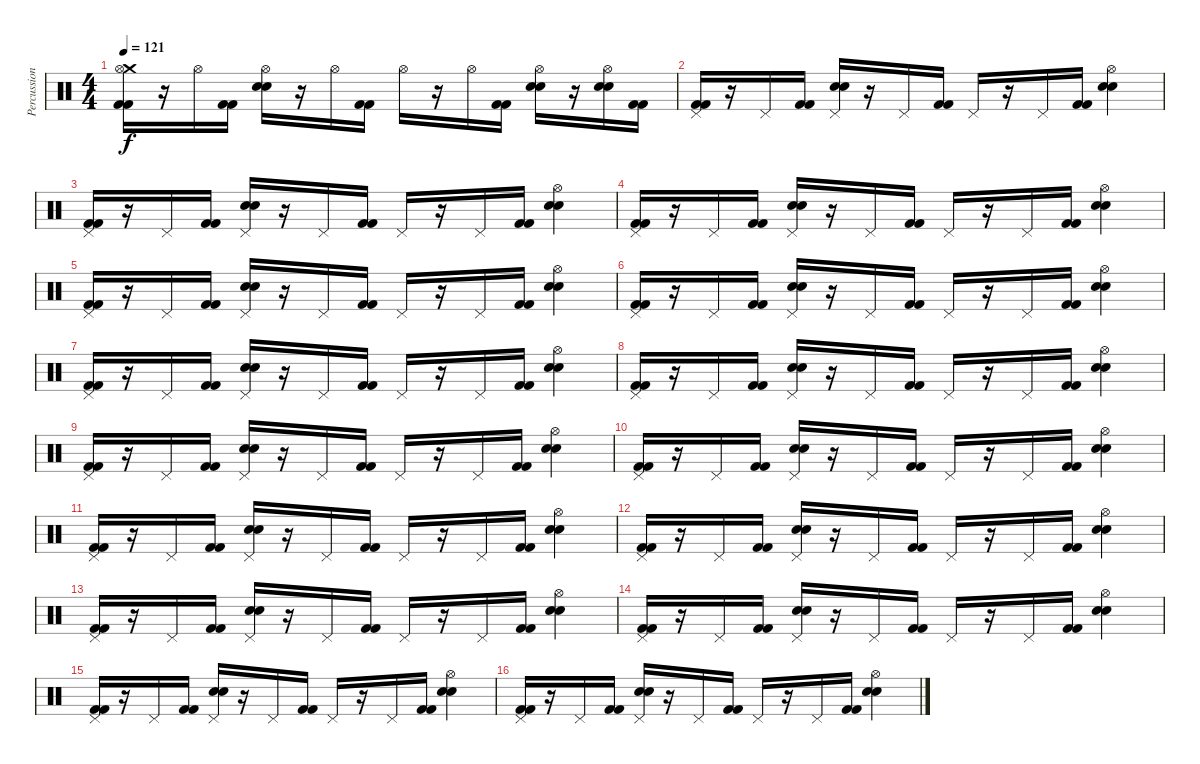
\track ("Percussion- Mike" "Percussion") {instrument percussion}
\staff {score}
\articulation defaults
\ts (4 4)
\tempo 121
\clef neutral
\ks c
("Crash medium (hit)" "Kick (hit) 2" "Kick (hit) 2" "Hi-Hat (open)").16{dy f} r.16 "Hi-Hat (open)".16 ("Kick (hit) 2" "Kick (hit) 2").16 ("Snare (hit) 2" "Snare (hit) 2" "Hi-Hat (open)").16 r.16 "Hi-Hat (open)".16 ("Kick (hit) 2" "Kick (hit) 2").16 "Hi-Hat (open)".16 r.16 "Hi-Hat (open)".16 ("Kick (hit) 2" "Kick (hit) 2").16 ("Snare (hit) 2" "Snare (hit) 2" "Hi-Hat (open)").16 r.16 ("Electric Snare (hit)" "Electric Snare (hit)" "Hi-Hat (open)").16 ("Kick (hit) 2" "Kick (hit) 2").16 |
("Kick (hit) 2" "Kick (hit) 2" "Pedal Hi-Hat (hit)").16 r.16 "Pedal Hi-Hat (hit)".16 ("Kick (hit) 2" "Kick (hit) 2").16 ("Snare (hit) 2" "Snare (hit) 2" "Pedal Hi-Hat (hit)").16 r.16 "Pedal Hi-Hat (hit)".16 ("Kick (hit) 2" "Kick (hit) 2").16 "Pedal Hi-Hat (hit)".16 r.16 "Pedal Hi-Hat (hit)".16 ("Kick (hit) 2" "Kick (hit) 2").16 ("Hi-Hat (open)" "Snare (hit) 2" "Snare (hit) 2").4 |
("Kick (hit) 2" "Kick (hit) 2" "Pedal Hi-Hat (hit)").16 r.16 "Pedal Hi-Hat (hit)".16 ("Kick (hit) 2" "Kick (hit) 2").16 ("Snare (hit) 2" "Snare (hit) 2" "Pedal Hi-Hat (hit)").16 r.16 "Pedal Hi-Hat (hit)".16 ("Kick (hit) 2" "Kick (hit) 2").16 "Pedal Hi-Hat (hit)".16 r.16 "Pedal Hi-Hat (hit)".16 ("Kick (hit) 2" "Kick (hit) 2").16 ("Hi-Hat (open)" "Snare (hit) 2" "Snare (hit) 2").4 |
("Kick (hit) 2" "Kick (hit) 2" "Pedal Hi-Hat (hit)").16 r.16 "Pedal Hi-Hat (hit)".16 ("Kick (hit) 2" "Kick (hit) 2").16 ("Snare (hit) 2" "Snare (hit) 2" "Pedal Hi-Hat (hit)").16 r.16 "Pedal Hi-Hat (hit)".16 ("Kick (hit) 2" "Kick (hit) 2").16 "Pedal Hi-Hat (hit)".16 r.16 "Pedal Hi-Hat (hit)".16 ("Kick (hit) 2" "Kick (hit) 2").16 ("Hi-Hat (open)" "Snare (hit) 2" "Snare (hit) 2").4 |
("Kick (hit) 2" "Kick (hit) 2" "Pedal Hi-Hat (hit)").16 r.16 "Pedal Hi-Hat (hit)".16 ("Kick (hit) 2" "Kick (hit) 2").16 ("Snare (hit) 2" "Snare (hit) 2" "Pedal Hi-Hat (hit)").16 r.16 "Pedal Hi-Hat (hit)".16 ("Kick (hit) 2" "Kick (hit) 2").16 "Pedal Hi-Hat (hit)".16 r.16 "Pedal Hi-Hat (hit)".16 ("Kick (hit) 2" "Kick (hit) 2").16 ("Hi-Hat (open)" "Snare (hit) 2" "Snare (hit) 2").4 |
("Kick (hit) 2" "Kick (hit) 2" "Pedal Hi-Hat (hit)").16 r.16 "Pedal Hi-Hat (hit)".16 ("Kick (hit) 2" "Kick (hit) 2").16 ("Snare (hit) 2" "Snare (hit) 2" "Pedal Hi-Hat (hit)").16 r.16 "Pedal Hi-Hat (hit)".16 ("Kick (hit) 2" "Kick (hit) 2").16 "Pedal Hi-Hat (hit)".16 r.16 "Pedal Hi-Hat (hit)".16 ("Kick (hit) 2" "Kick (hit) 2").16 ("Hi-Hat (open)" "Snare (hit) 2" "Snare (hit) 2").4 |
("Kick (hit) 2" "Kick (hit) 2" "Pedal Hi-Hat (hit)").16 r.16 "Pedal Hi-Hat (hit)".16 ("Kick (hit) 2" "Kick (hit) 2").16 ("Snare (hit) 2" "Snare (hit) 2" "Pedal Hi-Hat (hit)").16 r.16 "Pedal Hi-Hat (hit)".16 ("Kick (hit) 2" "Kick (hit) 2").16 "Pedal Hi-Hat (hit)".16 r.16 "Pedal Hi-Hat (hit)".16 ("Kick (hit) 2" "Kick (hit) 2").16 ("Hi-Hat (open)" "Snare (hit) 2" "Snare (hit) 2").4 |
("Kick (hit) 2" "Kick (hit) 2" "Pedal Hi-Hat (hit)").16 r.16 "Pedal Hi-Hat (hit)".16 ("Kick (hit) 2" "Kick (hit) 2").16 ("Snare (hit) 2" "Snare (hit) 2" "Pedal Hi-Hat (hit)").16 r.16 "Pedal Hi-Hat (hit)".16 ("Kick (hit) 2" "Kick (hit) 2").16 "Pedal Hi-Hat (hit)".16 r.16 "Pedal Hi-Hat (hit)".16 ("Kick (hit) 2" "Kick (hit) 2").16 ("Hi-Hat (open)" "Snare (hit) 2" "Snare (hit) 2").4 |
("Kick (hit) 2" "Kick (hit) 2" "Pedal Hi-Hat (hit)").16 r.16 "Pedal Hi-Hat (hit)".16 ("Kick (hit) 2" "Kick (hit) 2").16 ("Snare (hit) 2" "Snare (hit) 2" "Pedal Hi-Hat (hit)").16 r.16 "Pedal Hi-Hat (hit)".16 ("Kick (hit) 2" "Kick (hit) 2").16 "Pedal Hi-Hat (hit)".16 r.16 "Pedal Hi-Hat (hit)".16 ("Kick (hit) 2" "Kick (hit) 2").16 ("Hi-Hat (open)" "Snare (hit) 2" "Snare (hit) 2").4 |
("Kick (hit) 2" "Kick (hit) 2" "Pedal Hi-Hat (hit)").16 r.16 "Pedal Hi-Hat (hit)".16 ("Kick (hit) 2" "Kick (hit) 2").16 ("Snare (hit) 2" "Snare (hit) 2" "Pedal Hi-Hat (hit)").16 r.16 "Pedal Hi-Hat (hit)".16 ("Kick (hit) 2" "Kick (hit) 2").16 "Pedal Hi-Hat (hit)".16 r.16 "Pedal Hi-Hat (hit)".16 ("Kick (hit) 2" "Kick (hit) 2").16 ("Hi-Hat (open)" "Snare (hit) 2" "Snare (hit) 2").4 |
("Kick (hit) 2" "Kick (hit) 2" "Pedal Hi-Hat (hit)").16 r.16 "Pedal Hi-Hat (hit)".16 ("Kick (hit) 2" "Kick (hit) 2").16 ("Snare (hit) 2" "Snare (hit) 2" "Pedal Hi-Hat (hit)").16 r.16 "Pedal Hi-Hat (hit)".16 ("Kick (hit) 2" "Kick (hit) 2").16 "Pedal Hi-Hat (hit)".16 r.16 "Pedal Hi-Hat (hit)".16 ("Kick (hit) 2" "Kick (hit) 2").16 ("Hi-Hat (open)" "Snare (hit) 2" "Snare (hit) 2").4 |
("Kick (hit) 2" "Kick (hit) 2" "Pedal Hi-Hat (hit)").16 r.16 "Pedal Hi-Hat (hit)".16 ("Kick (hit) 2" "Kick (hit) 2").16 ("Snare (hit) 2" "Snare (hit) 2" "Pedal Hi-Hat (hit)").16 r.16 "Pedal Hi-Hat (hit)".16 ("Kick (hit) 2" "Kick (hit) 2").16 "Pedal Hi-Hat (hit)".16 r.16 "Pedal Hi-Hat (hit)".16 ("Kick (hit) 2" "Kick (hit) 2").16 ("Hi-Hat (open)" "Snare (hit) 2" "Snare (hit) 2").4 |
("Kick (hit) 2" "Kick (hit) 2" "Pedal Hi-Hat (hit)").16 r.16 "Pedal Hi-Hat (hit)".16 ("Kick (hit) 2" "Kick (hit) 2").16 ("Snare (hit) 2" "Snare (hit) 2" "Pedal Hi-Hat (hit)").16 r.16 "Pedal Hi-Hat (hit)".16 ("Kick (hit) 2" "Kick (hit) 2").16 "Pedal Hi-Hat (hit)".16 r.16 "Pedal Hi-Hat (hit)".16 ("Kick (hit) 2" "Kick (hit) 2").16 ("Hi-Hat (open)" "Snare (hit) 2" "Snare (hit) 2").4 |
("Kick (hit) 2" "Kick (hit) 2" "Pedal Hi-Hat (hit)").16 r.16 "Pedal Hi-Hat (hit)".16 ("Kick (hit) 2" "Kick (hit) 2").16 ("Snare (hit) 2" "Snare (hit) 2" "Pedal Hi-Hat (hit)").16 r.16 "Pedal Hi-Hat (hit)".16 ("Kick (hit) 2" "Kick (hit) 2").16 "Pedal Hi-Hat (hit)".16 r.16 "Pedal Hi-Hat (hit)".16 ("Kick (hit) 2" "Kick (hit) 2").16 ("Hi-Hat (open)" "Snare (hit) 2" "Snare (hit) 2").4 |
("Kick (hit) 2" "Kick (hit) 2" "Pedal Hi-Hat (hit)").16 r.16 "Pedal Hi-Hat (hit)".16 ("Kick (hit) 2" "Kick (hit) 2").16 ("Snare (hit) 2" "Snare (hit) 2" "Pedal Hi-Hat (hit)").16 r.16 "Pedal Hi-Hat (hit)".16 ("Kick (hit) 2" "Kick (hit) 2").16 "Pedal Hi-Hat (hit)".16 r.16 "Pedal Hi-Hat (hit)".16 ("Kick (hit) 2" "Kick (hit) 2").16 ("Hi-Hat (open)" "Snare (hit) 2" "Snare (hit) 2").4 |
("Kick (hit) 2" "Kick (hit) 2" "Pedal Hi-Hat (hit)").16 r.16 "Pedal Hi-Hat (hit)".16 ("Kick (hit) 2" "Kick (hit) 2").16 ("Snare (hit) 2" "Snare (hit) 2" "Pedal Hi-Hat (hit)").16 r.16 "Pedal Hi-Hat (hit)".16 ("Kick (hit) 2" "Kick (hit) 2").16 "Pedal Hi-Hat (hit)".16 r.16 "Pedal Hi-Hat (hit)".16 ("Kick (hit) 2" "Kick (hit) 2").16 ("Hi-Hat (open)" "Snare (hit) 2" "Snare (hit) 2").4
